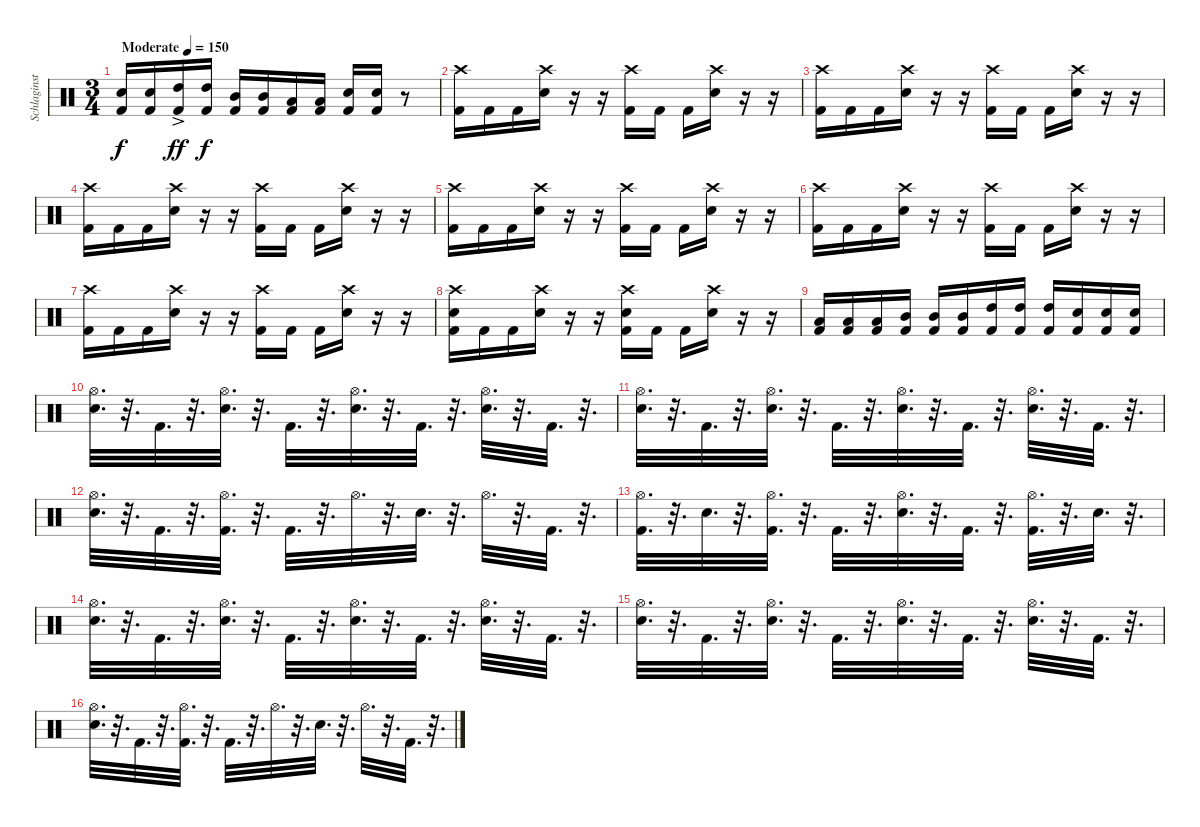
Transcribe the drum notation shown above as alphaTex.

\track ("Schlaginstrumente - Auswahl" "Schlaginst") {instrument percussion}
\staff {score}
\articulation defaults
\ts (3 4)
\tempo (150 "Moderate")
\clef neutral
\ks c
("Snare (hit) 2" "Kick (hit) 2").16{dy f} ("Snare (hit) 2" "Kick (hit) 2").16 ("High Tom (hit)" "Kick (hit) 2"{ac}).16{dy ff} ("High Tom (hit)" "Kick (hit) 2").16{dy f} ("Mid Tom (hit)" "Kick (hit) 2").16 ("Mid Tom (hit)" "Kick (hit) 2").16 ("Low Tom (hit)" "Kick (hit) 2").16 ("Low Tom (hit)" "Kick (hit) 2").16 ("Snare (hit) 2" "Kick (hit) 2").16 ("Snare (hit) 2" "Kick (hit) 2").16 r.8 |
("Crash high (hit)" "Kick (hit) 2").16 "Kick (hit) 2".16 "Kick (hit) 2".16 ("Crash high (hit)" "Snare (hit) 2").16 r.16 r.16 ("Crash high (hit)" "Kick (hit) 2").16 "Kick (hit) 2".16 "Kick (hit) 2".16 ("Crash high (hit)" "Snare (hit) 2").16 r.16 r.16 |
("Crash high (hit)" "Kick (hit) 2").16 "Kick (hit) 2".16 "Kick (hit) 2".16 ("Crash high (hit)" "Snare (hit) 2").16 r.16 r.16 ("Crash high (hit)" "Kick (hit) 2").16 "Kick (hit) 2".16 "Kick (hit) 2".16 ("Crash high (hit)" "Snare (hit) 2").16 r.16 r.16 |
("Crash high (hit)" "Kick (hit) 2").16 "Kick (hit) 2".16 "Kick (hit) 2".16 ("Crash high (hit)" "Snare (hit) 2").16 r.16 r.16 ("Crash high (hit)" "Kick (hit) 2").16 "Kick (hit) 2".16 "Kick (hit) 2".16 ("Crash high (hit)" "Snare (hit) 2").16 r.16 r.16 |
("Crash high (hit)" "Kick (hit) 2").16 "Kick (hit) 2".16 "Kick (hit) 2".16 ("Crash high (hit)" "Snare (hit) 2").16 r.16 r.16 ("Crash high (hit)" "Kick (hit) 2").16 "Kick (hit) 2".16 "Kick (hit) 2".16 ("Crash high (hit)" "Snare (hit) 2").16 r.16 r.16 |
("Crash high (hit)" "Kick (hit) 2").16 "Kick (hit) 2".16 "Kick (hit) 2".16 ("Crash high (hit)" "Snare (hit) 2").16 r.16 r.16 ("Crash high (hit)" "Kick (hit) 2").16 "Kick (hit) 2".16 "Kick (hit) 2".16 ("Crash high (hit)" "Snare (hit) 2").16 r.16 r.16 |
("Crash high (hit)" "Kick (hit) 2").16 "Kick (hit) 2".16 "Kick (hit) 2".16 ("Crash high (hit)" "Snare (hit) 2").16 r.16 r.16 ("Crash high (hit)" "Kick (hit) 2").16 "Kick (hit) 2".16 "Kick (hit) 2".16 ("Crash high (hit)" "Snare (hit) 2").16 r.16 r.16 |
("Crash high (hit)" "Snare (hit) 2" "Kick (hit) 2").16 "Kick (hit) 2".16 "Kick (hit) 2".16 ("Crash high (hit)" "Snare (hit) 2").16 r.16 r.16 ("Crash high (hit)" "Snare (hit) 2" "Kick (hit) 2").16 "Kick (hit) 2".16 "Kick (hit) 2".16 ("Crash high (hit)" "Snare (hit) 2").16 r.16 r.16 |
("Low Tom (hit)" "Kick (hit) 2").16 ("Low Tom (hit)" "Kick (hit) 2").16 ("Low Tom (hit)" "Kick (hit) 2").16 ("Mid Tom (hit)" "Kick (hit) 2").16 ("Mid Tom (hit)" "Kick (hit) 2").16 ("Mid Tom (hit)" "Kick (hit) 2").16 ("High Tom (hit)" "Kick (hit) 2").16 ("High Tom (hit)" "Kick (hit) 2").16 ("High Tom (hit)" "Kick (hit) 2").16 ("Snare (hit) 2" "Kick (hit) 2").16 ("Snare (hit) 2" "Kick (hit) 2").16 ("Snare (hit) 2" "Kick (hit) 2").16 |
("Hi-Hat (open)" "Snare (hit) 2").32{d} r.32{d} "Kick (hit) 2".32{d} r.32{d} ("Hi-Hat (open)" "Snare (hit) 2").32{d} r.32{d} "Kick (hit) 2".32{d} r.32{d} ("Hi-Hat (open)" "Snare (hit) 2").32{d} r.32{d} "Kick (hit) 2".32{d} r.32{d} ("Hi-Hat (open)" "Snare (hit) 2").32{d} r.32{d} "Kick (hit) 2".32{d} r.32{d} |
("Hi-Hat (open)" "Snare (hit) 2").32{d} r.32{d} "Kick (hit) 2".32{d} r.32{d} ("Hi-Hat (open)" "Snare (hit) 2").32{d} r.32{d} "Kick (hit) 2".32{d} r.32{d} ("Hi-Hat (open)" "Snare (hit) 2").32{d} r.32{d} "Kick (hit) 2".32{d} r.32{d} ("Hi-Hat (open)" "Snare (hit) 2").32{d} r.32{d} "Kick (hit) 2".32{d} r.32{d} |
("Hi-Hat (open)" "Snare (hit) 2").32{d} r.32{d} "Kick (hit) 2".32{d} r.32{d} ("Hi-Hat (open)" "Kick (hit) 2").32{d} r.32{d} "Kick (hit) 2".32{d} r.32{d} "Hi-Hat (open)".32{d} r.32{d} "Snare (hit) 2".32{d} r.32{d} "Hi-Hat (open)".32{d} r.32{d} "Kick (hit) 2".32{d} r.32{d} |
("Hi-Hat (open)" "Kick (hit) 2").32{d} r.32{d} "Snare (hit) 2".32{d} r.32{d} ("Hi-Hat (open)" "Kick (hit) 2").32{d} r.32{d} "Kick (hit) 2".32{d} r.32{d} ("Hi-Hat (open)" "Snare (hit) 2").32{d} r.32{d} "Kick (hit) 2".32{d} r.32{d} ("Hi-Hat (open)" "Kick (hit) 2").32{d} r.32{d} "Snare (hit) 2".32{d} r.32{d} |
("Hi-Hat (open)" "Snare (hit) 2").32{d} r.32{d} "Kick (hit) 2".32{d} r.32{d} ("Hi-Hat (open)" "Snare (hit) 2").32{d} r.32{d} "Kick (hit) 2".32{d} r.32{d} ("Hi-Hat (open)" "Snare (hit) 2").32{d} r.32{d} "Kick (hit) 2".32{d} r.32{d} ("Hi-Hat (open)" "Snare (hit) 2").32{d} r.32{d} "Kick (hit) 2".32{d} r.32{d} |
("Hi-Hat (open)" "Snare (hit) 2").32{d} r.32{d} "Kick (hit) 2".32{d} r.32{d} ("Hi-Hat (open)" "Snare (hit) 2").32{d} r.32{d} "Kick (hit) 2".32{d} r.32{d} ("Hi-Hat (open)" "Snare (hit) 2").32{d} r.32{d} "Kick (hit) 2".32{d} r.32{d} ("Hi-Hat (open)" "Snare (hit) 2").32{d} r.32{d} "Kick (hit) 2".32{d} r.32{d} |
("Hi-Hat (open)" "Snare (hit) 2").32{d} r.32{d} "Kick (hit) 2".32{d} r.32{d} ("Hi-Hat (open)" "Kick (hit) 2").32{d} r.32{d} "Kick (hit) 2".32{d} r.32{d} "Hi-Hat (open)".32{d} r.32{d} "Snare (hit) 2".32{d} r.32{d} "Hi-Hat (open)".32{d} r.32{d} "Kick (hit) 2".32{d} r.32{d}
